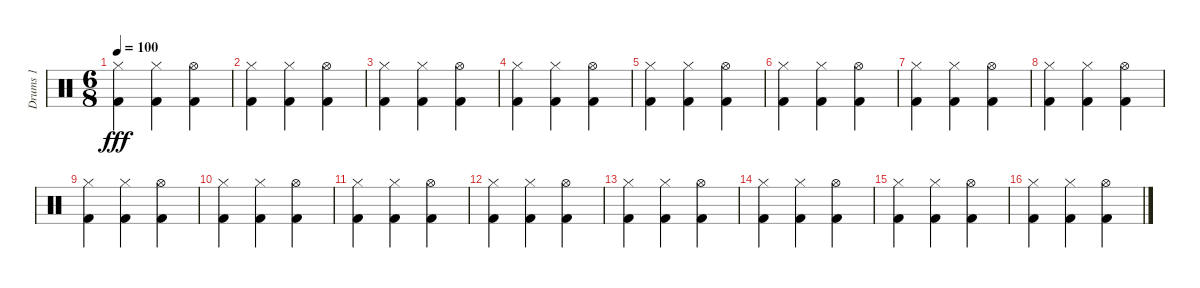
\track ("Drums 1" "Drums 1") {instrument percussion}
\staff {score}
\articulation defaults
\ts (6 8)
\tempo 100
\clef neutral
\ks c
("Kick (hit) 2" "Hi-Hat (closed)").4{dy fff} ("Kick (hit) 2" "Hi-Hat (closed)").4 ("Kick (hit) 2" "Hi-Hat (open)").4 |
("Kick (hit) 2" "Hi-Hat (closed)").4 ("Kick (hit) 2" "Hi-Hat (closed)").4 ("Kick (hit) 2" "Hi-Hat (open)").4 |
("Kick (hit) 2" "Hi-Hat (closed)").4 ("Kick (hit) 2" "Hi-Hat (closed)").4 ("Kick (hit) 2" "Hi-Hat (open)").4 |
("Kick (hit) 2" "Hi-Hat (closed)").4 ("Kick (hit) 2" "Hi-Hat (closed)").4 ("Kick (hit) 2" "Hi-Hat (open)").4 |
("Kick (hit) 2" "Hi-Hat (closed)").4 ("Kick (hit) 2" "Hi-Hat (closed)").4 ("Kick (hit) 2" "Hi-Hat (open)").4 |
("Kick (hit) 2" "Hi-Hat (closed)").4 ("Kick (hit) 2" "Hi-Hat (closed)").4 ("Kick (hit) 2" "Hi-Hat (open)").4 |
("Kick (hit) 2" "Hi-Hat (closed)").4 ("Kick (hit) 2" "Hi-Hat (closed)").4 ("Kick (hit) 2" "Hi-Hat (open)").4 |
("Kick (hit) 2" "Hi-Hat (closed)").4 ("Kick (hit) 2" "Hi-Hat (closed)").4 ("Kick (hit) 2" "Hi-Hat (open)").4 |
("Kick (hit) 2" "Hi-Hat (closed)").4 ("Kick (hit) 2" "Hi-Hat (closed)").4 ("Kick (hit) 2" "Hi-Hat (open)").4 |
("Kick (hit) 2" "Hi-Hat (closed)").4 ("Kick (hit) 2" "Hi-Hat (closed)").4 ("Kick (hit) 2" "Hi-Hat (open)").4 |
("Kick (hit) 2" "Hi-Hat (closed)").4 ("Kick (hit) 2" "Hi-Hat (closed)").4 ("Kick (hit) 2" "Hi-Hat (open)").4 |
("Kick (hit) 2" "Hi-Hat (closed)").4 ("Kick (hit) 2" "Hi-Hat (closed)").4 ("Kick (hit) 2" "Hi-Hat (open)").4 |
("Kick (hit) 2" "Hi-Hat (closed)").4 ("Kick (hit) 2" "Hi-Hat (closed)").4 ("Kick (hit) 2" "Hi-Hat (open)").4 |
("Kick (hit) 2" "Hi-Hat (closed)").4 ("Kick (hit) 2" "Hi-Hat (closed)").4 ("Kick (hit) 2" "Hi-Hat (open)").4 |
("Kick (hit) 2" "Hi-Hat (closed)").4 ("Kick (hit) 2" "Hi-Hat (closed)").4 ("Kick (hit) 2" "Hi-Hat (open)").4 |
("Kick (hit) 2" "Hi-Hat (closed)").4 ("Kick (hit) 2" "Hi-Hat (closed)").4 ("Kick (hit) 2" "Hi-Hat (open)").4
